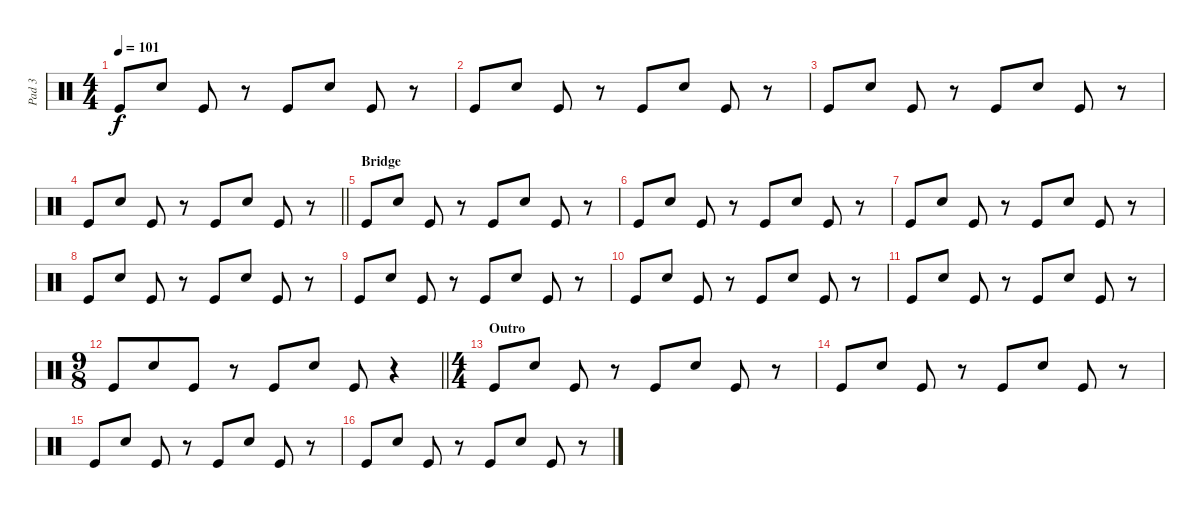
\track ("Pad 3" "Pad 3") {instrument percussion}
\staff {score}
\articulation defaults
\ts (4 4)
\tempo 101
\clef neutral
\ks c "Kick (hit)".8{dy f} "Electric Snare (hit)".8 "Kick (hit)".8
r.8 "Kick (hit)".8 "Electric Snare (hit)".8 "Kick (hit)".8 r.8 |
"Kick (hit)".8 "Electric Snare (hit)".8 "Kick (hit)".8 r.8 "Kick (hit)".8 "Electric Snare (hit)".8 "Kick (hit)".8 r.8 |
"Kick (hit)".8 "Electric Snare (hit)".8 "Kick (hit)".8 r.8 "Kick (hit)".8 "Electric Snare (hit)".8 "Kick (hit)".8 r.8 |
\barLineRight lightlight "Kick (hit)".8 "Electric Snare (hit)".8 "Kick (hit)".8
r.8 "Kick (hit)".8 "Electric Snare (hit)".8 "Kick (hit)".8 r.8 |
\section ("" "Bridge")
"Kick (hit)".8 "Electric Snare (hit)".8 "Kick (hit)".8 r.8 "Kick (hit)".8 "Electric Snare (hit)".8 "Kick (hit)".8 r.8 |
"Kick (hit)".8 "Electric Snare (hit)".8 "Kick (hit)".8 r.8 "Kick (hit)".8 "Electric Snare (hit)".8 "Kick (hit)".8 r.8 |
"Kick (hit)".8 "Electric Snare (hit)".8 "Kick (hit)".8 r.8 "Kick (hit)".8 "Electric Snare (hit)".8 "Kick (hit)".8 r.8 |
"Kick (hit)".8 "Electric Snare (hit)".8 "Kick (hit)".8 r.8 "Kick (hit)".8 "Electric Snare (hit)".8 "Kick (hit)".8 r.8 |
"Kick (hit)".8 "Electric Snare (hit)".8 "Kick (hit)".8 r.8 "Kick (hit)".8 "Electric Snare (hit)".8 "Kick (hit)".8 r.8 |
"Kick (hit)".8 "Electric Snare (hit)".8 "Kick (hit)".8 r.8 "Kick (hit)".8 "Electric Snare (hit)".8 "Kick (hit)".8 r.8 |
"Kick (hit)".8 "Electric Snare (hit)".8 "Kick (hit)".8 r.8 "Kick (hit)".8 "Electric Snare (hit)".8 "Kick (hit)".8 r.8 |
\ts (9 8)
\barLineRight lightlight "Kick (hit)".8 "Electric Snare (hit)".8 "Kick (hit)".8
r.8 "Kick (hit)".8 "Electric Snare (hit)".8 "Kick (hit)".8 r.4 |
\ts (4 4)
\section ("" "Outro")
"Kick (hit)".8 "Electric Snare (hit)".8 "Kick (hit)".8 r.8 "Kick (hit)".8 "Electric Snare (hit)".8 "Kick (hit)".8 r.8 |
"Kick (hit)".8 "Electric Snare (hit)".8 "Kick (hit)".8 r.8 "Kick (hit)".8 "Electric Snare (hit)".8 "Kick (hit)".8 r.8 |
"Kick (hit)".8 "Electric Snare (hit)".8 "Kick (hit)".8 r.8 "Kick (hit)".8 "Electric Snare (hit)".8 "Kick (hit)".8 r.8 |
"Kick (hit)".8 "Electric Snare (hit)".8 "Kick (hit)".8 r.8 "Kick (hit)".8 "Electric Snare (hit)".8 "Kick (hit)".8 r.8
